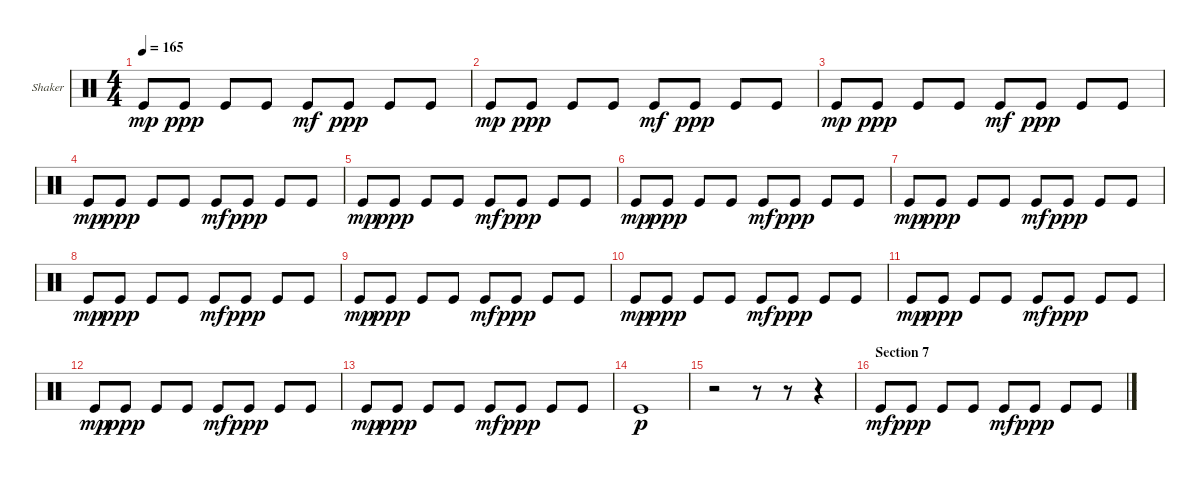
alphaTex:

\bracketExtendMode groupsimilarinstruments
\firstSystemTrackNameOrientation horizontal
\otherSystemsTrackNameOrientation horizontal
\track ("Shaker" "Shaker") {instrument percussion}
\staff {score}
\articulation defaults
\ts (4 4)
\tempo 165
\clef neutral
\ks c "Kick (hit)".8{dy mp} "Kick (hit)".8{dy ppp} "Kick (hit)".8 "Kick (hit)".8 "Kick (hit)".8{dy mf} "Kick (hit)".8{dy ppp} "Kick (hit)".8 "Kick (hit)".8
|
"Kick (hit)".8{dy mp} "Kick (hit)".8{dy ppp} "Kick (hit)".8 "Kick (hit)".8 "Kick (hit)".8{dy mf} "Kick (hit)".8{dy ppp} "Kick (hit)".8 "Kick (hit)".8 |
"Kick (hit)".8{dy mp} "Kick (hit)".8{dy ppp} "Kick (hit)".8 "Kick (hit)".8 "Kick (hit)".8{dy mf} "Kick (hit)".8{dy ppp} "Kick (hit)".8 "Kick (hit)".8 |
"Kick (hit)".8{dy mp} "Kick (hit)".8{dy ppp} "Kick (hit)".8 "Kick (hit)".8 "Kick (hit)".8{dy mf} "Kick (hit)".8{dy ppp} "Kick (hit)".8 "Kick (hit)".8 |
"Kick (hit)".8{dy mp} "Kick (hit)".8{dy ppp} "Kick (hit)".8 "Kick (hit)".8 "Kick (hit)".8{dy mf} "Kick (hit)".8{dy ppp} "Kick (hit)".8 "Kick (hit)".8 |
"Kick (hit)".8{dy mp} "Kick (hit)".8{dy ppp} "Kick (hit)".8 "Kick (hit)".8 "Kick (hit)".8{dy mf} "Kick (hit)".8{dy ppp} "Kick (hit)".8 "Kick (hit)".8 |
"Kick (hit)".8{dy mp} "Kick (hit)".8{dy ppp} "Kick (hit)".8 "Kick (hit)".8 "Kick (hit)".8{dy mf} "Kick (hit)".8{dy ppp} "Kick (hit)".8 "Kick (hit)".8 |
"Kick (hit)".8{dy mp} "Kick (hit)".8{dy ppp} "Kick (hit)".8 "Kick (hit)".8 "Kick (hit)".8{dy mf} "Kick (hit)".8{dy ppp} "Kick (hit)".8 "Kick (hit)".8 |
"Kick (hit)".8{dy mp} "Kick (hit)".8{dy ppp} "Kick (hit)".8 "Kick (hit)".8 "Kick (hit)".8{dy mf} "Kick (hit)".8{dy ppp} "Kick (hit)".8 "Kick (hit)".8 |
"Kick (hit)".8{dy mp} "Kick (hit)".8{dy ppp} "Kick (hit)".8 "Kick (hit)".8 "Kick (hit)".8{dy mf} "Kick (hit)".8{dy ppp} "Kick (hit)".8 "Kick (hit)".8 |
"Kick (hit)".8{dy mp} "Kick (hit)".8{dy ppp} "Kick (hit)".8 "Kick (hit)".8 "Kick (hit)".8{dy mf} "Kick (hit)".8{dy ppp} "Kick (hit)".8 "Kick (hit)".8 |
"Kick (hit)".8{dy mp} "Kick (hit)".8{dy ppp} "Kick (hit)".8 "Kick (hit)".8 "Kick (hit)".8{dy mf} "Kick (hit)".8{dy ppp} "Kick (hit)".8 "Kick (hit)".8 |
"Kick (hit)".8{dy mp} "Kick (hit)".8{dy ppp} "Kick (hit)".8 "Kick (hit)".8 "Kick (hit)".8{dy mf} "Kick (hit)".8{dy ppp} "Kick (hit)".8 "Kick (hit)".8 |
"Kick (hit)".1{dy p} |
r.2 r.8 r.8 r.4 |
\section ("" "Section 7")
"Kick (hit)".8{dy mf} "Kick (hit)".8{dy ppp} "Kick (hit)".8 "Kick (hit)".8 "Kick (hit)".8{dy mf} "Kick (hit)".8{dy ppp} "Kick (hit)".8 "Kick (hit)".8
